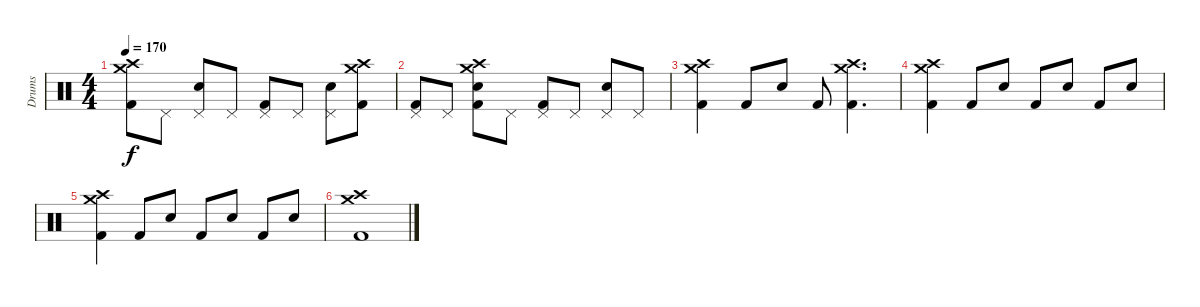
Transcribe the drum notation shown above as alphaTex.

\track ("Drums" "Drums") {instrument percussion}
\staff {score}
\articulation defaults
\ts (4 4)
\tempo 170
\clef neutral
\ks c
("Crash medium (hit)" "Crash high (hit)" "Kick (hit) 2").8{dy f} "Pedal Hi-Hat (hit)".8 ("Pedal Hi-Hat (hit)" "Snare (hit) 2").8 "Pedal Hi-Hat (hit)".8 ("Pedal Hi-Hat (hit)" "Kick (hit) 2").8 "Pedal Hi-Hat (hit)".8 ("Pedal Hi-Hat (hit)" "Snare (hit) 2").8 ("Crash medium (hit)" "Crash high (hit)" "Kick (hit) 2").8 |
("Pedal Hi-Hat (hit)" "Kick (hit) 2").8 "Pedal Hi-Hat (hit)".8 ("Crash medium (hit)" "Crash high (hit)" "Snare (hit) 2" "Kick (hit) 2").8 "Pedal Hi-Hat (hit)".8 ("Pedal Hi-Hat (hit)" "Kick (hit) 2").8 "Pedal Hi-Hat (hit)".8 ("Pedal Hi-Hat (hit)" "Snare (hit) 2").8 "Pedal Hi-Hat (hit)".8 |
("Crash medium (hit)" "Crash high (hit)" "Kick (hit) 2").4 "Kick (hit) 2".8 "Snare (hit) 2".8 "Kick (hit) 2".8 ("Crash medium (hit)" "Crash high (hit)" "Kick (hit) 2").4{d} |
("Crash medium (hit)" "Crash high (hit)" "Kick (hit) 2").4 "Kick (hit) 2".8 "Snare (hit) 2".8 "Kick (hit) 2".8 "Snare (hit) 2".8 "Kick (hit) 2".8 "Snare (hit) 2".8 |
("Crash medium (hit)" "Crash high (hit)" "Kick (hit) 2").4 "Kick (hit) 2".8 "Snare (hit) 2".8 "Kick (hit) 2".8 "Snare (hit) 2".8 "Kick (hit) 2".8 "Snare (hit) 2".8 |
("Crash medium (hit)" "Crash high (hit)" "Kick (hit) 2").1
